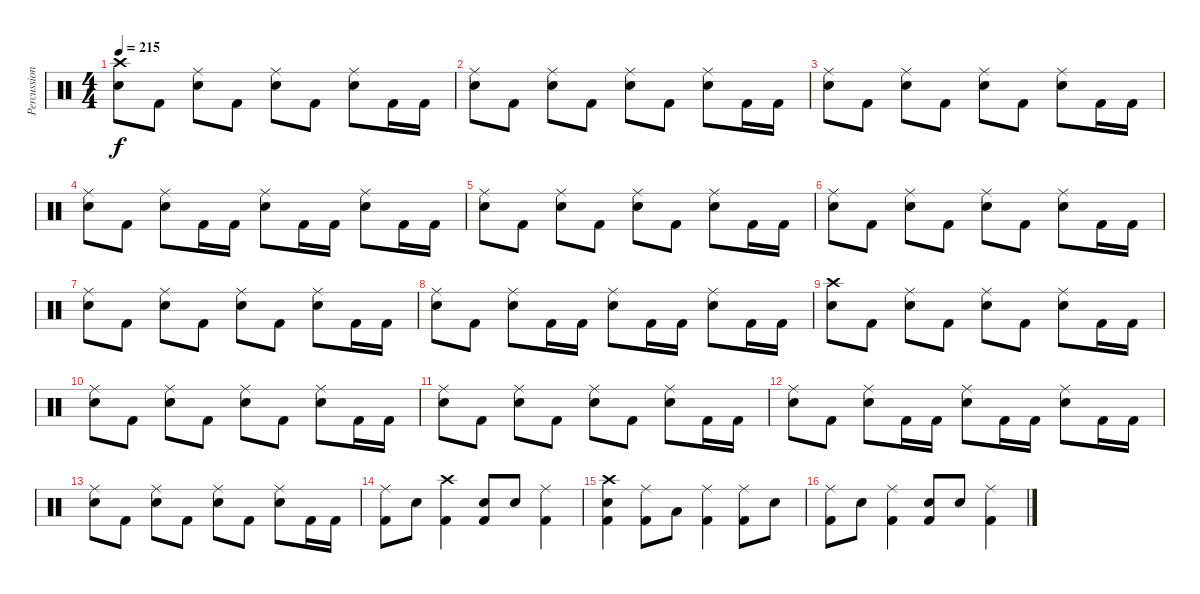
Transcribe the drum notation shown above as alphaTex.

\track ("Percussion" "Percussion") {instrument percussion}
\staff {score}
\articulation defaults
\ts (4 4)
\tempo 215
\clef neutral
\ks aminor
("Crash high (hit)" "Snare (hit) 2").8{dy f} "Kick (hit) 2".8 ("Ride (middle)" "Snare (hit) 2").8 "Kick (hit) 2".8 ("Ride (middle)" "Snare (hit) 2").8 "Kick (hit) 2".8 ("Ride (middle)" "Snare (hit) 2").8 "Kick (hit) 2".16 "Kick (hit) 2".16 |
("Ride (middle)" "Snare (hit) 2").8 "Kick (hit) 2".8 ("Ride (middle)" "Snare (hit) 2").8 "Kick (hit) 2".8 ("Ride (middle)" "Snare (hit) 2").8 "Kick (hit) 2".8 ("Ride (middle)" "Snare (hit) 2").8 "Kick (hit) 2".16 "Kick (hit) 2".16 |
("Ride (middle)" "Snare (hit) 2").8 "Kick (hit) 2".8 ("Ride (middle)" "Snare (hit) 2").8 "Kick (hit) 2".8 ("Ride (middle)" "Snare (hit) 2").8 "Kick (hit) 2".8 ("Ride (middle)" "Snare (hit) 2").8 "Kick (hit) 2".16 "Kick (hit) 2".16 |
("Ride (middle)" "Snare (hit) 2").8 "Kick (hit) 2".8 ("Ride (middle)" "Snare (hit) 2").8 "Kick (hit) 2".16 "Kick (hit) 2".16 ("Ride (middle)" "Snare (hit) 2").8 "Kick (hit) 2".16 "Kick (hit) 2".16 ("Ride (middle)" "Snare (hit) 2").8 "Kick (hit) 2".16 "Kick (hit) 2".16 |
("Ride (middle)" "Snare (hit) 2").8 "Kick (hit) 2".8 ("Ride (middle)" "Snare (hit) 2").8 "Kick (hit) 2".8 ("Ride (middle)" "Snare (hit) 2").8 "Kick (hit) 2".8 ("Ride (middle)" "Snare (hit) 2").8 "Kick (hit) 2".16 "Kick (hit) 2".16 |
("Ride (middle)" "Snare (hit) 2").8 "Kick (hit) 2".8 ("Ride (middle)" "Snare (hit) 2").8 "Kick (hit) 2".8 ("Ride (middle)" "Snare (hit) 2").8 "Kick (hit) 2".8 ("Ride (middle)" "Snare (hit) 2").8 "Kick (hit) 2".16 "Kick (hit) 2".16 |
("Ride (middle)" "Snare (hit) 2").8 "Kick (hit) 2".8 ("Ride (middle)" "Snare (hit) 2").8 "Kick (hit) 2".8 ("Ride (middle)" "Snare (hit) 2").8 "Kick (hit) 2".8 ("Ride (middle)" "Snare (hit) 2").8 "Kick (hit) 2".16 "Kick (hit) 2".16 |
("Ride (middle)" "Snare (hit) 2").8 "Kick (hit) 2".8 ("Ride (middle)" "Snare (hit) 2").8 "Kick (hit) 2".16 "Kick (hit) 2".16 ("Ride (middle)" "Snare (hit) 2").8 "Kick (hit) 2".16 "Kick (hit) 2".16 ("Ride (middle)" "Snare (hit) 2").8 "Kick (hit) 2".16 "Kick (hit) 2".16 |
("Crash high (hit)" "Snare (hit) 2").8 "Kick (hit) 2".8 ("Ride (middle)" "Snare (hit) 2").8 "Kick (hit) 2".8 ("Ride (middle)" "Snare (hit) 2").8 "Kick (hit) 2".8 ("Ride (middle)" "Snare (hit) 2").8 "Kick (hit) 2".16 "Kick (hit) 2".16 |
("Ride (middle)" "Snare (hit) 2").8 "Kick (hit) 2".8 ("Ride (middle)" "Snare (hit) 2").8 "Kick (hit) 2".8 ("Ride (middle)" "Snare (hit) 2").8 "Kick (hit) 2".8 ("Ride (middle)" "Snare (hit) 2").8 "Kick (hit) 2".16 "Kick (hit) 2".16 |
("Ride (middle)" "Snare (hit) 2").8 "Kick (hit) 2".8 ("Ride (middle)" "Snare (hit) 2").8 "Kick (hit) 2".8 ("Ride (middle)" "Snare (hit) 2").8 "Kick (hit) 2".8 ("Ride (middle)" "Snare (hit) 2").8 "Kick (hit) 2".16 "Kick (hit) 2".16 |
("Ride (middle)" "Snare (hit) 2").8 "Kick (hit) 2".8 ("Ride (middle)" "Snare (hit) 2").8 "Kick (hit) 2".16 "Kick (hit) 2".16 ("Ride (middle)" "Snare (hit) 2").8 "Kick (hit) 2".16 "Kick (hit) 2".16 ("Ride (middle)" "Snare (hit) 2").8 "Kick (hit) 2".16 "Kick (hit) 2".16 |
("Ride (middle)" "Snare (hit) 2").8 "Kick (hit) 2".8 ("Ride (middle)" "Snare (hit) 2").8 "Kick (hit) 2".8 ("Ride (middle)" "Snare (hit) 2").8 "Kick (hit) 2".8 ("Ride (middle)" "Snare (hit) 2").8 "Kick (hit) 2".16 "Kick (hit) 2".16 |
("Ride (middle)" "Kick (hit) 2").8 "Snare (hit) 2".8 ("Crash high (hit)" "Kick (hit) 2").4 ("Snare (hit) 2" "Kick (hit) 2").8 "Snare (hit) 2".8 ("Ride (middle)" "Kick (hit) 2").4 |
("Crash high (hit)" "Snare (hit) 2" "Kick (hit) 2").4 ("Ride (middle)" "Kick (hit) 2").8 "Low Tom (hit)".8 ("Ride (middle)" "Kick (hit) 2").4 ("Ride (middle)" "Kick (hit) 2").8 "Snare (hit) 2".8 |
("Ride (middle)" "Kick (hit) 2").8 "Snare (hit) 2".8 ("Ride (middle)" "Kick (hit) 2").4 ("Snare (hit) 2" "Kick (hit) 2").8 "Snare (hit) 2".8 ("Ride (middle)" "Kick (hit) 2").4
